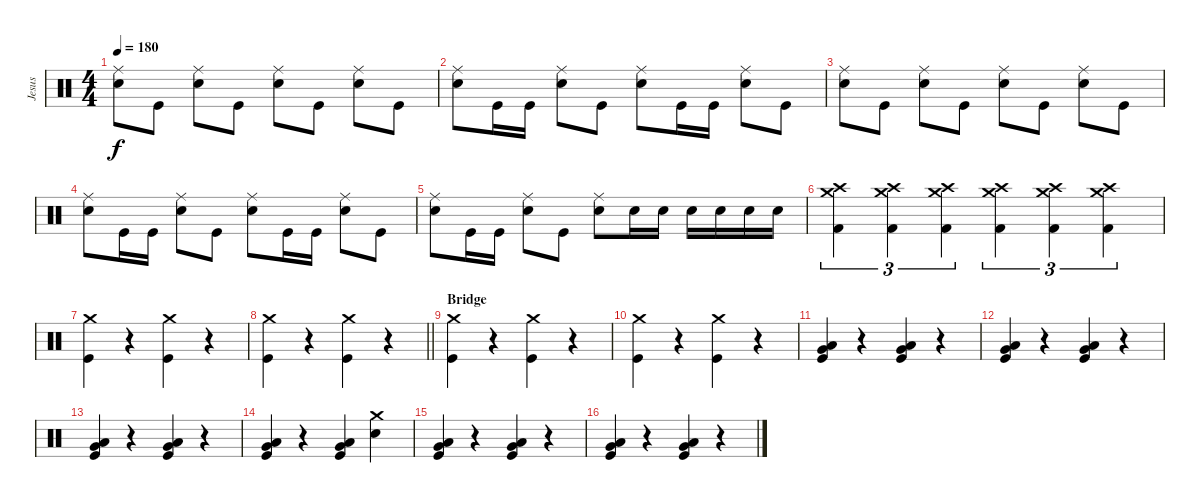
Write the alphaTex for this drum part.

\track ("Jesus" "Jesus") {instrument percussion}
\staff {score}
\articulation defaults
\ts (4 4)
\tempo 180
\clef neutral
\ks c
("Ride (middle)" "Snare (hit) 2").8{dy f} "Kick (hit)".8 ("Ride (middle)" "Snare (hit) 2").8 "Kick (hit)".8 ("Ride (middle)" "Snare (hit) 2").8 "Kick (hit)".8 ("Ride (middle)" "Snare (hit) 2").8 "Kick (hit)".8 |
("Ride (middle)" "Snare (hit) 2").8 "Kick (hit)".16 "Kick (hit)".16 ("Ride (middle)" "Snare (hit) 2").8 "Kick (hit)".8 ("Ride (middle)" "Snare (hit) 2").8 "Kick (hit)".16 "Kick (hit)".16 ("Ride (middle)" "Snare (hit) 2").8 "Kick (hit)".8 |
("Ride (middle)" "Snare (hit) 2").8 "Kick (hit)".8 ("Ride (middle)" "Snare (hit) 2").8 "Kick (hit)".8 ("Ride (middle)" "Snare (hit) 2").8 "Kick (hit)".8 ("Ride (middle)" "Snare (hit) 2").8 "Kick (hit)".8 |
("Ride (middle)" "Snare (hit) 2").8 "Kick (hit)".16 "Kick (hit)".16 ("Ride (middle)" "Snare (hit) 2").8 "Kick (hit)".8 ("Ride (middle)" "Snare (hit) 2").8 "Kick (hit)".16 "Kick (hit)".16 ("Ride (middle)" "Snare (hit) 2").8 "Kick (hit)".8 |
("Ride (middle)" "Snare (hit) 2").8 "Kick (hit)".16 "Kick (hit)".16 ("Ride (middle)" "Snare (hit) 2").8 "Kick (hit)".8 ("Ride (middle)" "Snare (hit) 2").8 "Snare (hit) 2".16 "Snare (hit) 2".16 "Snare (hit) 2".16 "Snare (hit) 2".16 "Snare (hit) 2".16 "Snare (hit) 2".16 |
("Crash high (hit)" "Crash medium (hit)" "Kick (hit) 2").4{tu (3 2)} ("Crash high (hit)" "Crash medium (hit)" "Kick (hit) 2").4{tu (3 2)} ("Crash high (hit)" "Crash medium (hit)" "Kick (hit) 2").4{tu (3 2)} ("Crash high (hit)" "Crash medium (hit)" "Kick (hit) 2").4{tu (3 2)} ("Crash high (hit)" "Crash medium (hit)" "Kick (hit) 2").4{tu (3 2)} ("Crash high (hit)" "Crash medium (hit)" "Kick (hit) 2").4{tu (3 2)} |
("Crash medium (hit)" "Kick (hit)").4 r.4 ("Crash medium (hit)" "Kick (hit)").4 r.4 |
\barLineRight lightlight
("Crash medium (hit)" "Kick (hit)").4 r.4 ("Crash medium (hit)" "Kick (hit)").4 r.4 |
\section ("" "Bridge")
("Crash medium (hit)" "Kick (hit)").4 r.4 ("Crash medium (hit)" "Kick (hit)").4 r.4 |
("Crash medium (hit)" "Kick (hit)").4 r.4 ("Crash medium (hit)" "Kick (hit)").4 r.4 |
("Low Tom (hit)" "Very Low Tom (hit)" "Kick (hit)").4 r.4 ("Low Tom (hit)" "Very Low Tom (hit)" "Kick (hit)").4 r.4 |
("Low Tom (hit)" "Very Low Tom (hit)" "Kick (hit)").4 r.4 ("Low Tom (hit)" "Very Low Tom (hit)" "Kick (hit)").4 r.4 |
("Low Tom (hit)" "Very Low Tom (hit)" "Kick (hit)").4 r.4 ("Low Tom (hit)" "Very Low Tom (hit)" "Kick (hit)").4 r.4 |
("Low Tom (hit)" "Very Low Tom (hit)" "Kick (hit)").4 r.4 ("Low Tom (hit)" "Very Low Tom (hit)" "Kick (hit)").4 ("Crash medium (hit)" "Snare (hit) 2").4 |
("Low Tom (hit)" "Very Low Tom (hit)" "Kick (hit)").4 r.4 ("Low Tom (hit)" "Very Low Tom (hit)" "Kick (hit)").4 r.4 |
("Low Tom (hit)" "Very Low Tom (hit)" "Kick (hit)").4 r.4 ("Low Tom (hit)" "Very Low Tom (hit)" "Kick (hit)").4 r.4
